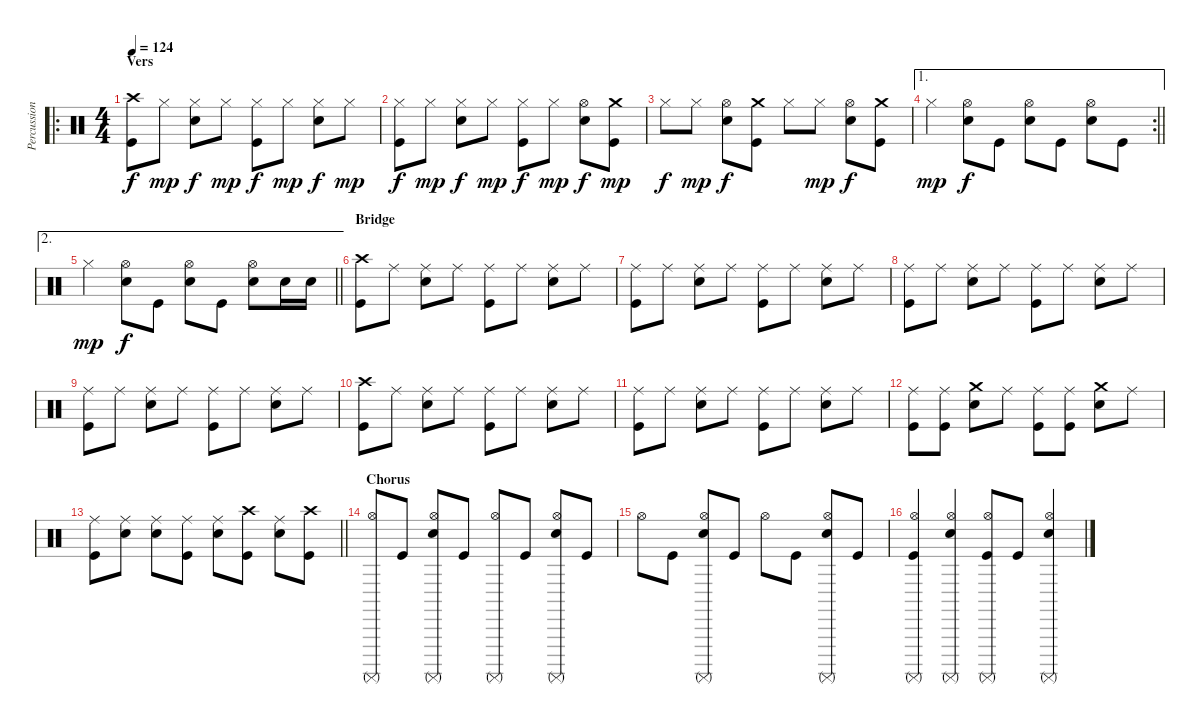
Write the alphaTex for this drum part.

\track ("Percussion" "Percussion") {instrument percussion}
\staff {score}
\articulation defaults
\ro
\ts (4 4)
\section ("" "Vers")
\tempo 124
\clef neutral
\ks c
("Crash high (hit)" "Kick (hit)").8{dy f} "Hi-Hat (closed)".8{dy mp} ("Hi-Hat (closed)" "Snare (hit) 2").8{dy f} "Hi-Hat (closed)".8{dy mp} ("Hi-Hat (closed)" "Kick (hit)").8{dy f} "Hi-Hat (closed)".8{dy mp} ("Hi-Hat (closed)" "Snare (hit) 2").8{dy f} "Hi-Hat (closed)".8{dy mp} |
("Hi-Hat (closed)" "Kick (hit)").8{dy f} "Hi-Hat (closed)".8{dy mp} ("Hi-Hat (closed)" "Snare (hit) 2").8{dy f} "Hi-Hat (closed)".8{dy mp} ("Hi-Hat (closed)" "Kick (hit)").8{dy f} "Hi-Hat (closed)".8{dy mp} ("Hi-Hat (open)" "Snare (hit) 2").8{dy f} ("Crash medium (hit)" "Kick (hit)").8{dy mp} |
"Hi-Hat (closed)".8{dy f} "Hi-Hat (closed)".8{dy mp} ("Hi-Hat (open)" "Snare (hit) 2").8{dy f} ("Crash medium (hit)" "Kick (hit)").8 "Hi-Hat (closed)".8 "Hi-Hat (closed)".8{dy mp} ("Hi-Hat (open)" "Snare (hit) 2").8{dy f} ("Crash medium (hit)" "Kick (hit)").8 |
\ae 1
\rc 2
\barLineRight lightlight "Hi-Hat (closed)".4{dy mp}
("Hi-Hat (open)" "Snare (hit) 2").8{dy f} "Kick (hit)".8 ("Hi-Hat (open)" "Snare (hit) 2").8 "Kick (hit)".8 ("Hi-Hat (open)" "Snare (hit) 2").8 "Kick (hit)".8 |
\ae 2
\barLineRight lightlight "Hi-Hat (closed)".4{dy mp}
("Hi-Hat (open)" "Snare (hit) 2").8{dy f} "Kick (hit)".8 ("Hi-Hat (open)" "Snare (hit) 2").8 "Kick (hit)".8 ("Hi-Hat (open)" "Snare (hit) 2").8 "Snare (hit) 2".16 "Snare (hit) 2".16 |
\section ("" "Bridge")
("Crash high (hit)" "Kick (hit)").8 "Ride (middle)".8 ("Ride (middle)" "Snare (hit) 2").8 "Ride (middle)".8 ("Ride (middle)" "Kick (hit)").8 "Ride (middle)".8 ("Ride (middle)" "Snare (hit) 2").8 "Ride (middle)".8 |
("Ride (middle)" "Kick (hit)").8 "Ride (middle)".8 ("Ride (middle)" "Snare (hit) 2").8 "Ride (middle)".8 ("Ride (middle)" "Kick (hit)").8 "Ride (middle)".8 ("Ride (middle)" "Snare (hit) 2").8 "Ride (middle)".8 |
("Ride (middle)" "Kick (hit)").8 "Ride (middle)".8 ("Ride (middle)" "Snare (hit) 2").8 "Ride (middle)".8 ("Ride (middle)" "Kick (hit)").8 "Ride (middle)".8 ("Ride (middle)" "Snare (hit) 2").8 "Ride (middle)".8 |
("Ride (middle)" "Kick (hit)").8 "Ride (middle)".8 ("Ride (middle)" "Snare (hit) 2").8 "Ride (middle)".8 ("Ride (middle)" "Kick (hit)").8 "Ride (middle)".8 ("Ride (middle)" "Snare (hit) 2").8 "Ride (middle)".8 |
("Crash high (hit)" "Kick (hit)").8 "Ride (middle)".8 ("Ride (middle)" "Snare (hit) 2").8 "Ride (middle)".8 ("Ride (middle)" "Kick (hit)").8 "Ride (middle)".8 ("Ride (middle)" "Snare (hit) 2").8 "Ride (middle)".8 |
("Ride (middle)" "Kick (hit)").8 "Ride (middle)".8 ("Ride (middle)" "Snare (hit) 2").8 "Ride (middle)".8 ("Ride (middle)" "Kick (hit)").8 "Ride (middle)".8 ("Ride (middle)" "Snare (hit) 2").8 "Ride (middle)".8 |
("Ride (middle)" "Kick (hit)").8 ("Ride (middle)" "Kick (hit)").8 ("Crash medium (hit)" "Snare (hit) 2").8 "Ride (middle)".8 ("Ride (middle)" "Kick (hit)").8 ("Ride (middle)" "Kick (hit)").8 ("Crash medium (hit)" "Snare (hit) 2").8 "Ride (middle)".8 |
\barLineRight lightlight
("Ride (middle)" "Kick (hit)").8 ("Ride (middle)" "Snare (hit) 2").8 ("Ride (middle)" "Snare (hit) 2").8 ("Ride (middle)" "Kick (hit)").8 ("Ride (middle)" "Snare (hit) 2").8 ("Crash high (hit)" "Kick (hit)").8 ("Ride (middle)" "Snare (hit) 2").8 ("Crash high (hit)" "Kick (hit)").8 |
\section ("" "Chorus")
("Hi-Hat (open)" "Surdo (mute)").8 "Kick (hit)".8 ("Hi-Hat (open)" "Snare (hit) 2" "Surdo (mute)").8 "Kick (hit)".8 ("Hi-Hat (open)" "Surdo (mute)").8 "Kick (hit)".8 ("Hi-Hat (open)" "Snare (hit) 2" "Surdo (mute)").8 "Kick (hit)".8 |
"Hi-Hat (open)".8 "Kick (hit)".8 ("Hi-Hat (open)" "Snare (hit) 2" "Surdo (mute)").8 "Kick (hit)".8 "Hi-Hat (open)".8 "Kick (hit)".8 ("Hi-Hat (open)" "Snare (hit) 2" "Surdo (mute)").8 "Kick (hit)".8 |
("Hi-Hat (open)" "Surdo (mute)" "Kick (hit)").4 ("Hi-Hat (open)" "Snare (hit) 2" "Surdo (mute)").4 ("Hi-Hat (open)" "Surdo (mute)" "Kick (hit)").8 "Kick (hit)".8 ("Hi-Hat (open)" "Snare (hit) 2" "Surdo (mute)").4
